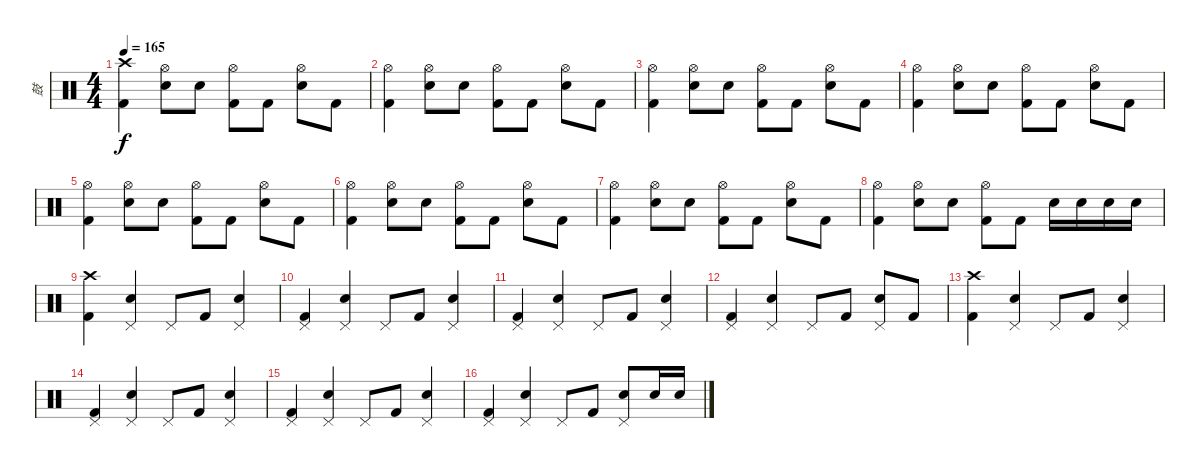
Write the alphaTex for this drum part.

\track ("鼓" "鼓") {instrument percussion}
\staff {score}
\articulation defaults
\ts (4 4)
\tempo 165
\clef neutral
\ks c
("Crash high (hit)" "Kick (hit) 2").4{dy f} ("Hi-Hat (open)" "Snare (hit) 2").8 "Snare (hit) 2".8 ("Hi-Hat (open)" "Kick (hit) 2").8 "Kick (hit) 2".8 ("Hi-Hat (open)" "Snare (hit) 2").8 "Kick (hit) 2".8 |
("Hi-Hat (open)" "Kick (hit) 2").4 ("Hi-Hat (open)" "Snare (hit) 2").8 "Snare (hit) 2".8 ("Hi-Hat (open)" "Kick (hit) 2").8 "Kick (hit) 2".8 ("Hi-Hat (open)" "Snare (hit) 2").8 "Kick (hit) 2".8 |
("Hi-Hat (open)" "Kick (hit) 2").4 ("Hi-Hat (open)" "Snare (hit) 2").8 "Snare (hit) 2".8 ("Hi-Hat (open)" "Kick (hit) 2").8 "Kick (hit) 2".8 ("Hi-Hat (open)" "Snare (hit) 2").8 "Kick (hit) 2".8 |
("Hi-Hat (open)" "Kick (hit) 2").4 ("Hi-Hat (open)" "Snare (hit) 2").8 "Snare (hit) 2".8 ("Hi-Hat (open)" "Kick (hit) 2").8 "Kick (hit) 2".8 ("Hi-Hat (open)" "Snare (hit) 2").8 "Kick (hit) 2".8 |
("Hi-Hat (open)" "Kick (hit) 2").4 ("Hi-Hat (open)" "Snare (hit) 2").8 "Snare (hit) 2".8 ("Hi-Hat (open)" "Kick (hit) 2").8 "Kick (hit) 2".8 ("Hi-Hat (open)" "Snare (hit) 2").8 "Kick (hit) 2".8 |
("Hi-Hat (open)" "Kick (hit) 2").4 ("Hi-Hat (open)" "Snare (hit) 2").8 "Snare (hit) 2".8 ("Hi-Hat (open)" "Kick (hit) 2").8 "Kick (hit) 2".8 ("Hi-Hat (open)" "Snare (hit) 2").8 "Kick (hit) 2".8 |
("Hi-Hat (open)" "Kick (hit) 2").4 ("Hi-Hat (open)" "Snare (hit) 2").8 "Snare (hit) 2".8 ("Hi-Hat (open)" "Kick (hit) 2").8 "Kick (hit) 2".8 ("Hi-Hat (open)" "Snare (hit) 2").8 "Kick (hit) 2".8 |
("Hi-Hat (open)" "Kick (hit) 2").4 ("Hi-Hat (open)" "Snare (hit) 2").8 "Snare (hit) 2".8 ("Hi-Hat (open)" "Kick (hit) 2").8 "Kick (hit) 2".8 "Snare (hit) 2".16 "Snare (hit) 2".16 "Snare (hit) 2".16 "Snare (hit) 2".16 |
("Crash high (hit)" "Kick (hit) 2").4 ("Pedal Hi-Hat (hit)" "Snare (hit) 2").4 "Pedal Hi-Hat (hit)".8 "Kick (hit) 2".8 ("Pedal Hi-Hat (hit)" "Snare (hit) 2").4 |
("Pedal Hi-Hat (hit)" "Kick (hit) 2").4 ("Pedal Hi-Hat (hit)" "Snare (hit) 2").4 "Pedal Hi-Hat (hit)".8 "Kick (hit) 2".8 ("Pedal Hi-Hat (hit)" "Snare (hit) 2").4 |
("Pedal Hi-Hat (hit)" "Kick (hit) 2").4 ("Pedal Hi-Hat (hit)" "Snare (hit) 2").4 "Pedal Hi-Hat (hit)".8 "Kick (hit) 2".8 ("Pedal Hi-Hat (hit)" "Snare (hit) 2").4 |
("Pedal Hi-Hat (hit)" "Kick (hit) 2").4 ("Pedal Hi-Hat (hit)" "Snare (hit) 2").4 "Pedal Hi-Hat (hit)".8 "Kick (hit) 2".8 ("Pedal Hi-Hat (hit)" "Snare (hit) 2").8 "Kick (hit) 2".8 |
("Crash high (hit)" "Kick (hit) 2").4 ("Pedal Hi-Hat (hit)" "Snare (hit) 2").4 "Pedal Hi-Hat (hit)".8 "Kick (hit) 2".8 ("Pedal Hi-Hat (hit)" "Snare (hit) 2").4 |
("Pedal Hi-Hat (hit)" "Kick (hit) 2").4 ("Pedal Hi-Hat (hit)" "Snare (hit) 2").4 "Pedal Hi-Hat (hit)".8 "Kick (hit) 2".8 ("Pedal Hi-Hat (hit)" "Snare (hit) 2").4 |
("Pedal Hi-Hat (hit)" "Kick (hit) 2").4 ("Pedal Hi-Hat (hit)" "Snare (hit) 2").4 "Pedal Hi-Hat (hit)".8 "Kick (hit) 2".8 ("Pedal Hi-Hat (hit)" "Snare (hit) 2").4 |
("Pedal Hi-Hat (hit)" "Kick (hit) 2").4 ("Pedal Hi-Hat (hit)" "Snare (hit) 2").4 "Pedal Hi-Hat (hit)".8 "Kick (hit) 2".8 ("Pedal Hi-Hat (hit)" "Snare (hit) 2").8 "Snare (hit) 2".16 "Snare (hit) 2".16
